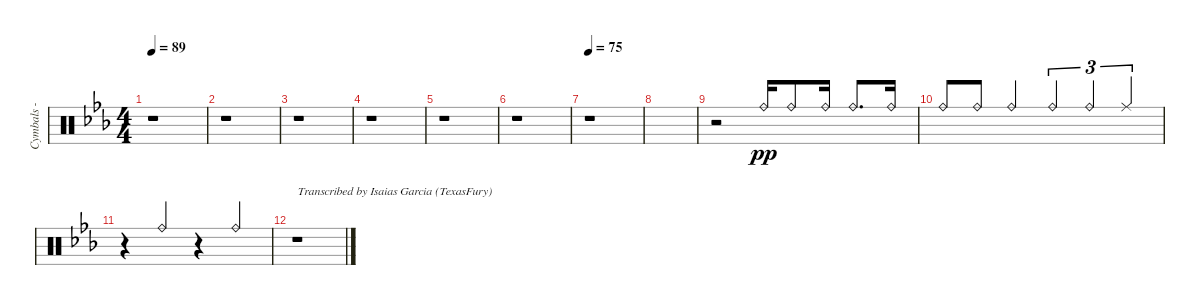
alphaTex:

\track ("Cymbals - ride" "Cymbals - ") {instrument percussion}
\staff {score}
\articulation defaults
\ts (4 4)
\tempo 89
\clef neutral
\ks eb
r.1{dy f} |
r.1 |
r.1 |
r.1 |
r.1 |
r.1 |
\tempo 75
r.1 |
|
r.2 "Ride (bell)".16{dy pp beam Up} "Ride (bell)".8{beam Up} "Ride (bell)".16{beam Up} "Ride (bell)".8{d beam Up} "Ride (bell)".16{beam Up} |
"Ride (bell)".8{beam Up} "Ride (bell)".8{beam Up} "Ride (bell)".4{beam Up} "Ride (bell)".4{tu (3 2) beam Up} "Ride (bell)".4{tu (3 2) beam Up} "Ride (middle)".4{tu (3 2) beam Up} |
r.4 "Ride (bell)".4{beam Up} r.4 "Ride (bell)".4{beam Up} |
r.1{txt "Transcribed by Isaias Garcia (TexasFury)"}
